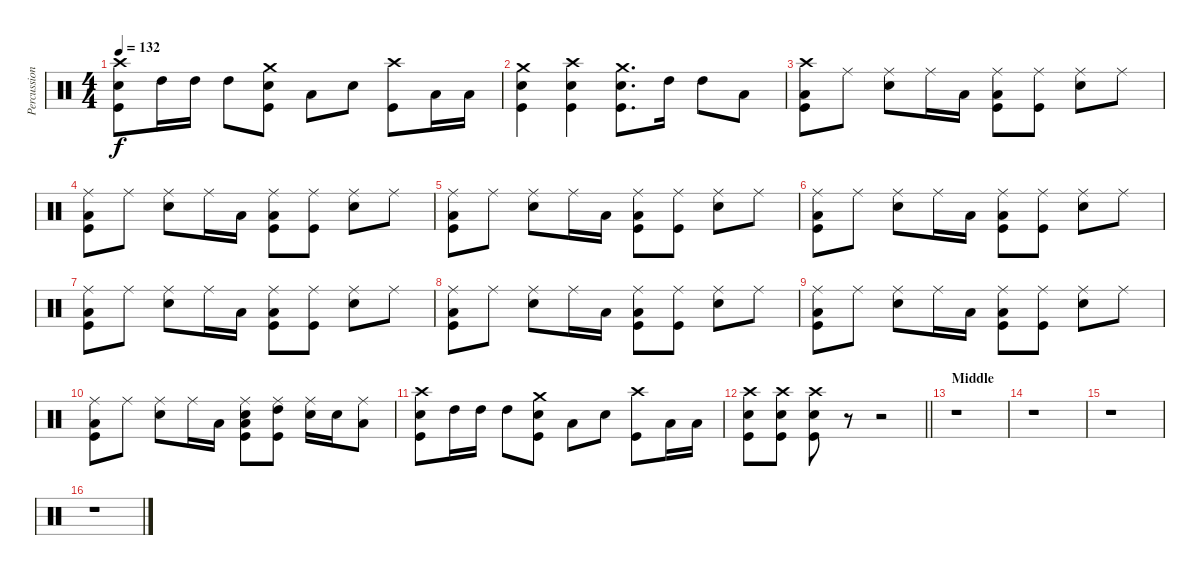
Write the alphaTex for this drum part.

\track ("Percussion" "Percussion") {instrument percussion}
\staff {score}
\articulation defaults
\ts (4 4)
\tempo 132
\clef neutral
\ks c
("Crash high (hit)" "Snare (hit) 2" "Kick (hit)").8{dy f} "High Tom (hit)".16 "High Tom (hit)".16 "High Tom (hit)".8 ("Crash medium (hit)" "Snare (hit) 2" "Kick (hit)").8 "Low Tom (hit)".8 "Snare (hit) 2".8 ("Crash high (hit)" "Kick (hit)").8 "Low Tom (hit)".16 "Low Tom (hit)".16 |
("Crash medium (hit)" "Snare (hit) 2" "Kick (hit)").4 ("Crash high (hit)" "Snare (hit) 2" "Kick (hit)").4 ("Crash medium (hit)" "Snare (hit) 2" "Kick (hit)").8{d} "High Tom (hit)".16 "High Tom (hit)".8 "Low Tom (hit)".8 |
("Crash high (hit)" "Low Tom (hit)" "Kick (hit)").8 "Ride (middle)".8 ("Ride (middle)" "Snare (hit) 2").8 "Ride (middle)".16 "Low Tom (hit)".16 ("Ride (middle)" "Low Tom (hit)" "Kick (hit)").8 ("Ride (middle)" "Kick (hit)").8 ("Ride (middle)" "Snare (hit) 2").8 "Ride (middle)".8 |
("Ride (middle)" "Low Tom (hit)" "Kick (hit)").8 "Ride (middle)".8 ("Ride (middle)" "Snare (hit) 2").8 "Ride (middle)".16 "Low Tom (hit)".16 ("Ride (middle)" "Low Tom (hit)" "Kick (hit)").8 ("Ride (middle)" "Kick (hit)").8 ("Ride (middle)" "Snare (hit) 2").8 "Ride (middle)".8 |
("Ride (middle)" "Low Tom (hit)" "Kick (hit)").8 "Ride (middle)".8 ("Ride (middle)" "Snare (hit) 2").8 "Ride (middle)".16 "Low Tom (hit)".16 ("Ride (middle)" "Low Tom (hit)" "Kick (hit)").8 ("Ride (middle)" "Kick (hit)").8 ("Ride (middle)" "Snare (hit) 2").8 "Ride (middle)".8 |
("Ride (middle)" "Low Tom (hit)" "Kick (hit)").8 "Ride (middle)".8 ("Ride (middle)" "Snare (hit) 2").8 "Ride (middle)".16 "Low Tom (hit)".16 ("Ride (middle)" "Low Tom (hit)" "Kick (hit)").8 ("Ride (middle)" "Kick (hit)").8 ("Ride (middle)" "Snare (hit) 2").8 "Ride (middle)".8 |
("Ride (middle)" "Low Tom (hit)" "Kick (hit)").8 "Ride (middle)".8 ("Ride (middle)" "Snare (hit) 2").8 "Ride (middle)".16 "Low Tom (hit)".16 ("Ride (middle)" "Low Tom (hit)" "Kick (hit)").8 ("Ride (middle)" "Kick (hit)").8 ("Ride (middle)" "Snare (hit) 2").8 "Ride (middle)".8 |
("Ride (middle)" "Low Tom (hit)" "Kick (hit)").8 "Ride (middle)".8 ("Ride (middle)" "Snare (hit) 2").8 "Ride (middle)".16 "Low Tom (hit)".16 ("Ride (middle)" "Low Tom (hit)" "Kick (hit)").8 ("Ride (middle)" "Kick (hit)").8 ("Ride (middle)" "Snare (hit) 2").8 "Ride (middle)".8 |
("Ride (middle)" "Low Tom (hit)" "Kick (hit)").8 "Ride (middle)".8 ("Ride (middle)" "Snare (hit) 2").8 "Ride (middle)".16 "Low Tom (hit)".16 ("Ride (middle)" "Low Tom (hit)" "Kick (hit)").8 ("Ride (middle)" "Kick (hit)").8 ("Ride (middle)" "Snare (hit) 2").8 "Ride (middle)".8 |
("Ride (middle)" "Low Tom (hit)" "Kick (hit)").8 "Ride (middle)".8 ("Ride (middle)" "Snare (hit) 2").8 "Ride (middle)".16 "Low Tom (hit)".16 ("Ride (middle)" "Low Tom (hit)" "Snare (hit) 2" "Kick (hit)").8 ("Ride (middle)" "High Tom (hit)" "Kick (hit)").8 ("Ride (middle)" "Snare (hit) 2").16 "Snare (hit) 2".16 ("Ride (middle)" "Low Tom (hit)").8 |
("Crash high (hit)" "Snare (hit) 2" "Kick (hit)").8 "High Tom (hit)".16 "High Tom (hit)".16 "High Tom (hit)".8 ("Crash medium (hit)" "Snare (hit) 2" "Kick (hit)").8 "Low Tom (hit)".8 "Snare (hit) 2".8 ("Crash high (hit)" "Kick (hit)").8 "Low Tom (hit)".16 "Low Tom (hit)".16 |
\barLineRight lightlight
("Crash high (hit)" "Snare (hit) 2" "Kick (hit)").8 ("Crash high (hit)" "Snare (hit) 2" "Kick (hit)").8 ("Crash high (hit)" "Snare (hit) 2" "Kick (hit)").8 r.8 r.2 |
\section ("" "Middle")
r.1 |
r.1 |
r.1 |
r.1
